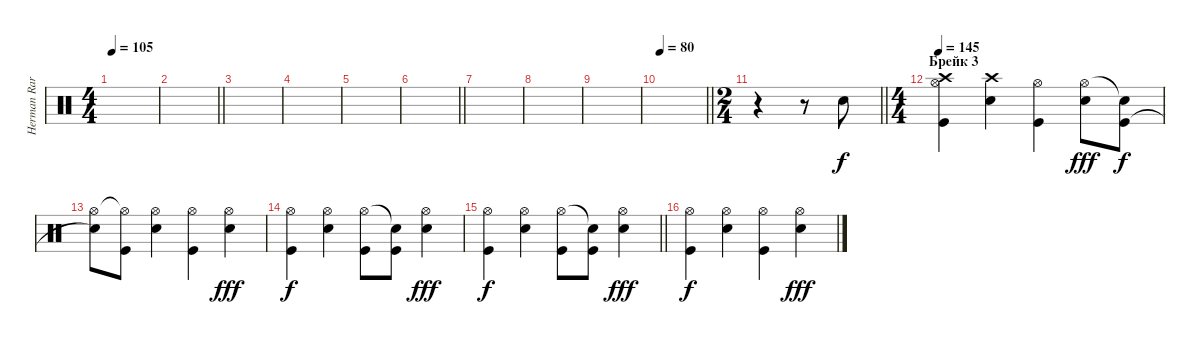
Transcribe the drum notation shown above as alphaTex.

\track ("Herman Rarebell" "Herman Rar") {instrument percussion}
\staff {score}
\articulation defaults
\ts (4 4)
\tempo 105
\clef neutral
\ks c
|
\barLineRight lightlight
|
|
|
|
\barLineRight lightlight
|
|
|
|
\tempo 80
\barLineRight lightlight
|
\ts (2 4)
\barLineRight lightlight
r.4 r.8 "Electric Snare (hit)".8 |
\ts (4 4)
\section ("" "Брейк 3")
\tempo 145
("Hi-Hat (open)" "Crash high (hit)" "Kick (hit)").4 ("Crash high (hit)" "Snare (hit) 2").4 ("Hi-Hat (open)" "Kick (hit)").4 ("Hi-Hat (open)" "Snare (hit) 2").8{dy fff} ("Snare (hit)"{t} "Kick (hit)").8{dy f} |
("Hi-Hat (open)" "Snare (hit)"{t}).8 ("Hi-Hat (open)"{t} "Kick (hit)").8 ("Hi-Hat (open)" "Snare (hit) 2").4 ("Hi-Hat (open)" "Kick (hit)").4 ("Hi-Hat (open)" "Snare (hit) 2").4{dy fff} |
("Hi-Hat (open)" "Kick (hit)").4{dy f} ("Hi-Hat (open)" "Snare (hit) 2").4 ("Hi-Hat (open)" "Kick (hit)").8 ("Snare (hit)"{t} "Kick (hit)").8 ("Hi-Hat (open)" "Snare (hit) 2").4{dy fff} |
\barLineRight lightlight
("Hi-Hat (open)" "Kick (hit)").4{dy f} ("Hi-Hat (open)" "Snare (hit) 2").4 ("Hi-Hat (open)" "Kick (hit)").8 ("Snare (hit)"{t} "Kick (hit)").8 ("Hi-Hat (open)" "Snare (hit) 2").4{dy fff} |
("Hi-Hat (open)" "Kick (hit)").4{dy f} ("Hi-Hat (open)" "Snare (hit) 2").4 ("Hi-Hat (open)" "Kick (hit)").4 ("Hi-Hat (open)" "Snare (hit) 2").4{dy fff}
